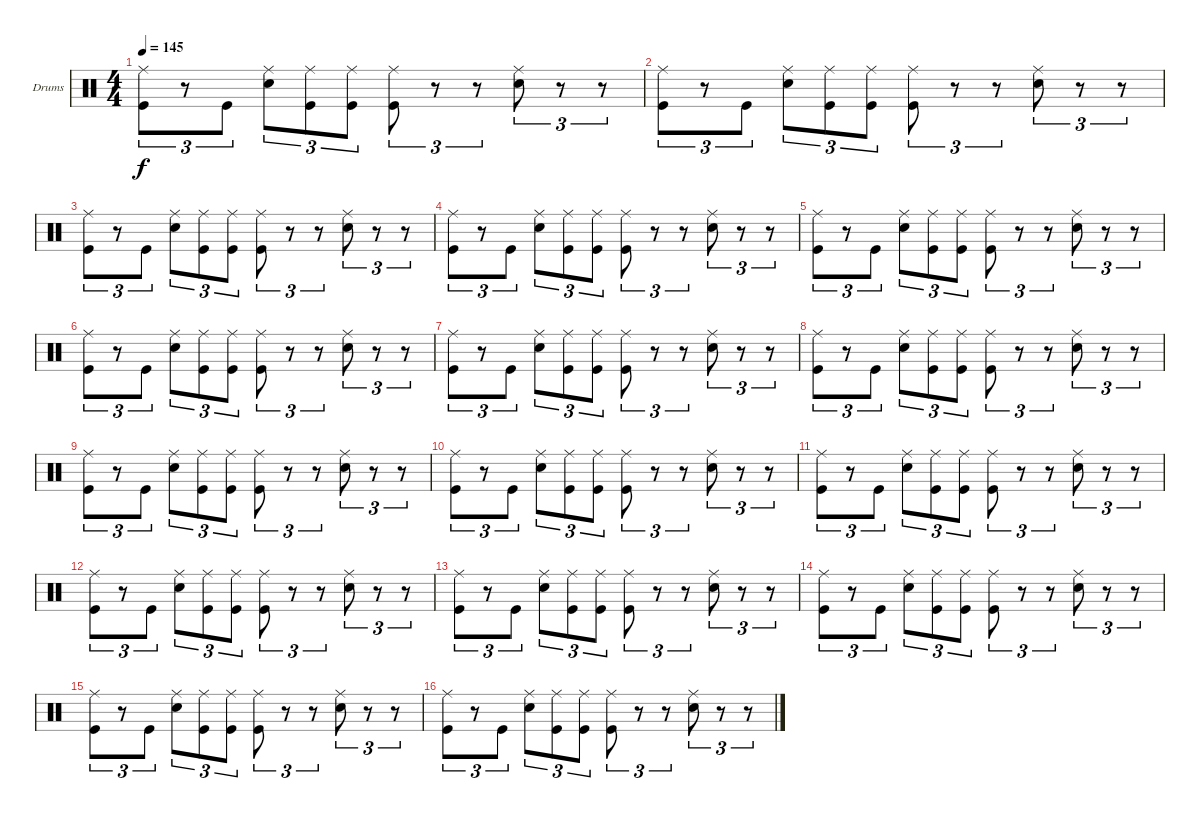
\bracketExtendMode groupsimilarinstruments
\firstSystemTrackNameOrientation horizontal
\otherSystemsTrackNameOrientation horizontal
\track ("FREDRIK ANDERSSON" "Drums") {instrument percussion}
\staff {score}
\articulation defaults
\ts (4 4)
\tempo 145
\clef neutral
\ks c
("Ride (middle)" "Kick (hit)").8{tu (3 2) dy f} r.8{tu (3 2)} "Kick (hit)".8{tu (3 2)} ("Ride (middle)" "Snare (hit) 2").8{tu (3 2)} ("Ride (middle)" "Kick (hit)").8{tu (3 2)} ("Ride (middle)" "Kick (hit)").8{tu (3 2)} ("Ride (middle)" "Kick (hit)").8{tu (3 2)} r.8{tu (3 2)} r.8{tu (3 2)} ("Ride (middle)" "Snare (hit) 2").8{tu (3 2)} r.8{tu (3 2)} r.8{tu (3 2)} |
("Ride (middle)" "Kick (hit)").8{tu (3 2)} r.8{tu (3 2)} "Kick (hit)".8{tu (3 2)} ("Ride (middle)" "Snare (hit) 2").8{tu (3 2)} ("Ride (middle)" "Kick (hit)").8{tu (3 2)} ("Ride (middle)" "Kick (hit)").8{tu (3 2)} ("Ride (middle)" "Kick (hit)").8{tu (3 2)} r.8{tu (3 2)} r.8{tu (3 2)} ("Ride (middle)" "Snare (hit) 2").8{tu (3 2)} r.8{tu (3 2)} r.8{tu (3 2)} |
("Ride (middle)" "Kick (hit)").8{tu (3 2)} r.8{tu (3 2)} "Kick (hit)".8{tu (3 2)} ("Ride (middle)" "Snare (hit) 2").8{tu (3 2)} ("Ride (middle)" "Kick (hit)").8{tu (3 2)} ("Ride (middle)" "Kick (hit)").8{tu (3 2)} ("Ride (middle)" "Kick (hit)").8{tu (3 2)} r.8{tu (3 2)} r.8{tu (3 2)} ("Ride (middle)" "Snare (hit) 2").8{tu (3 2)} r.8{tu (3 2)} r.8{tu (3 2)} |
("Ride (middle)" "Kick (hit)").8{tu (3 2)} r.8{tu (3 2)} "Kick (hit)".8{tu (3 2)} ("Ride (middle)" "Snare (hit) 2").8{tu (3 2)} ("Ride (middle)" "Kick (hit)").8{tu (3 2)} ("Ride (middle)" "Kick (hit)").8{tu (3 2)} ("Ride (middle)" "Kick (hit)").8{tu (3 2)} r.8{tu (3 2)} r.8{tu (3 2)} ("Ride (middle)" "Snare (hit) 2").8{tu (3 2)} r.8{tu (3 2)} r.8{tu (3 2)} |
("Ride (middle)" "Kick (hit)").8{tu (3 2)} r.8{tu (3 2)} "Kick (hit)".8{tu (3 2)} ("Ride (middle)" "Snare (hit) 2").8{tu (3 2)} ("Ride (middle)" "Kick (hit)").8{tu (3 2)} ("Ride (middle)" "Kick (hit)").8{tu (3 2)} ("Ride (middle)" "Kick (hit)").8{tu (3 2)} r.8{tu (3 2)} r.8{tu (3 2)} ("Ride (middle)" "Snare (hit) 2").8{tu (3 2)} r.8{tu (3 2)} r.8{tu (3 2)} |
("Ride (middle)" "Kick (hit)").8{tu (3 2)} r.8{tu (3 2)} "Kick (hit)".8{tu (3 2)} ("Ride (middle)" "Snare (hit) 2").8{tu (3 2)} ("Ride (middle)" "Kick (hit)").8{tu (3 2)} ("Ride (middle)" "Kick (hit)").8{tu (3 2)} ("Ride (middle)" "Kick (hit)").8{tu (3 2)} r.8{tu (3 2)} r.8{tu (3 2)} ("Ride (middle)" "Snare (hit) 2").8{tu (3 2)} r.8{tu (3 2)} r.8{tu (3 2)} |
("Ride (middle)" "Kick (hit)").8{tu (3 2)} r.8{tu (3 2)} "Kick (hit)".8{tu (3 2)} ("Ride (middle)" "Snare (hit) 2").8{tu (3 2)} ("Ride (middle)" "Kick (hit)").8{tu (3 2)} ("Ride (middle)" "Kick (hit)").8{tu (3 2)} ("Ride (middle)" "Kick (hit)").8{tu (3 2)} r.8{tu (3 2)} r.8{tu (3 2)} ("Ride (middle)" "Snare (hit) 2").8{tu (3 2)} r.8{tu (3 2)} r.8{tu (3 2)} |
("Ride (middle)" "Kick (hit)").8{tu (3 2)} r.8{tu (3 2)} "Kick (hit)".8{tu (3 2)} ("Ride (middle)" "Snare (hit) 2").8{tu (3 2)} ("Ride (middle)" "Kick (hit)").8{tu (3 2)} ("Ride (middle)" "Kick (hit)").8{tu (3 2)} ("Ride (middle)" "Kick (hit)").8{tu (3 2)} r.8{tu (3 2)} r.8{tu (3 2)} ("Ride (middle)" "Snare (hit) 2").8{tu (3 2)} r.8{tu (3 2)} r.8{tu (3 2)} |
("Ride (middle)" "Kick (hit)").8{tu (3 2)} r.8{tu (3 2)} "Kick (hit)".8{tu (3 2)} ("Ride (middle)" "Snare (hit) 2").8{tu (3 2)} ("Ride (middle)" "Kick (hit)").8{tu (3 2)} ("Ride (middle)" "Kick (hit)").8{tu (3 2)} ("Ride (middle)" "Kick (hit)").8{tu (3 2)} r.8{tu (3 2)} r.8{tu (3 2)} ("Ride (middle)" "Snare (hit) 2").8{tu (3 2)} r.8{tu (3 2)} r.8{tu (3 2)} |
("Ride (middle)" "Kick (hit)").8{tu (3 2)} r.8{tu (3 2)} "Kick (hit)".8{tu (3 2)} ("Ride (middle)" "Snare (hit) 2").8{tu (3 2)} ("Ride (middle)" "Kick (hit)").8{tu (3 2)} ("Ride (middle)" "Kick (hit)").8{tu (3 2)} ("Ride (middle)" "Kick (hit)").8{tu (3 2)} r.8{tu (3 2)} r.8{tu (3 2)} ("Ride (middle)" "Snare (hit) 2").8{tu (3 2)} r.8{tu (3 2)} r.8{tu (3 2)} |
("Ride (middle)" "Kick (hit)").8{tu (3 2)} r.8{tu (3 2)} "Kick (hit)".8{tu (3 2)} ("Ride (middle)" "Snare (hit) 2").8{tu (3 2)} ("Ride (middle)" "Kick (hit)").8{tu (3 2)} ("Ride (middle)" "Kick (hit)").8{tu (3 2)} ("Ride (middle)" "Kick (hit)").8{tu (3 2)} r.8{tu (3 2)} r.8{tu (3 2)} ("Ride (middle)" "Snare (hit) 2").8{tu (3 2)} r.8{tu (3 2)} r.8{tu (3 2)} |
("Ride (middle)" "Kick (hit)").8{tu (3 2)} r.8{tu (3 2)} "Kick (hit)".8{tu (3 2)} ("Ride (middle)" "Snare (hit) 2").8{tu (3 2)} ("Ride (middle)" "Kick (hit)").8{tu (3 2)} ("Ride (middle)" "Kick (hit)").8{tu (3 2)} ("Ride (middle)" "Kick (hit)").8{tu (3 2)} r.8{tu (3 2)} r.8{tu (3 2)} ("Ride (middle)" "Snare (hit) 2").8{tu (3 2)} r.8{tu (3 2)} r.8{tu (3 2)} |
("Ride (middle)" "Kick (hit)").8{tu (3 2)} r.8{tu (3 2)} "Kick (hit)".8{tu (3 2)} ("Ride (middle)" "Snare (hit) 2").8{tu (3 2)} ("Ride (middle)" "Kick (hit)").8{tu (3 2)} ("Ride (middle)" "Kick (hit)").8{tu (3 2)} ("Ride (middle)" "Kick (hit)").8{tu (3 2)} r.8{tu (3 2)} r.8{tu (3 2)} ("Ride (middle)" "Snare (hit) 2").8{tu (3 2)} r.8{tu (3 2)} r.8{tu (3 2)} |
("Ride (middle)" "Kick (hit)").8{tu (3 2)} r.8{tu (3 2)} "Kick (hit)".8{tu (3 2)} ("Ride (middle)" "Snare (hit) 2").8{tu (3 2)} ("Ride (middle)" "Kick (hit)").8{tu (3 2)} ("Ride (middle)" "Kick (hit)").8{tu (3 2)} ("Ride (middle)" "Kick (hit)").8{tu (3 2)} r.8{tu (3 2)} r.8{tu (3 2)} ("Ride (middle)" "Snare (hit) 2").8{tu (3 2)} r.8{tu (3 2)} r.8{tu (3 2)} |
("Ride (middle)" "Kick (hit)").8{tu (3 2)} r.8{tu (3 2)} "Kick (hit)".8{tu (3 2)} ("Ride (middle)" "Snare (hit) 2").8{tu (3 2)} ("Ride (middle)" "Kick (hit)").8{tu (3 2)} ("Ride (middle)" "Kick (hit)").8{tu (3 2)} ("Ride (middle)" "Kick (hit)").8{tu (3 2)} r.8{tu (3 2)} r.8{tu (3 2)} ("Ride (middle)" "Snare (hit) 2").8{tu (3 2)} r.8{tu (3 2)} r.8{tu (3 2)} |
("Ride (middle)" "Kick (hit)").8{tu (3 2)} r.8{tu (3 2)} "Kick (hit)".8{tu (3 2)} ("Ride (middle)" "Snare (hit) 2").8{tu (3 2)} ("Ride (middle)" "Kick (hit)").8{tu (3 2)} ("Ride (middle)" "Kick (hit)").8{tu (3 2)} ("Ride (middle)" "Kick (hit)").8{tu (3 2)} r.8{tu (3 2)} r.8{tu (3 2)} ("Ride (middle)" "Snare (hit) 2").8{tu (3 2)} r.8{tu (3 2)} r.8{tu (3 2)}
